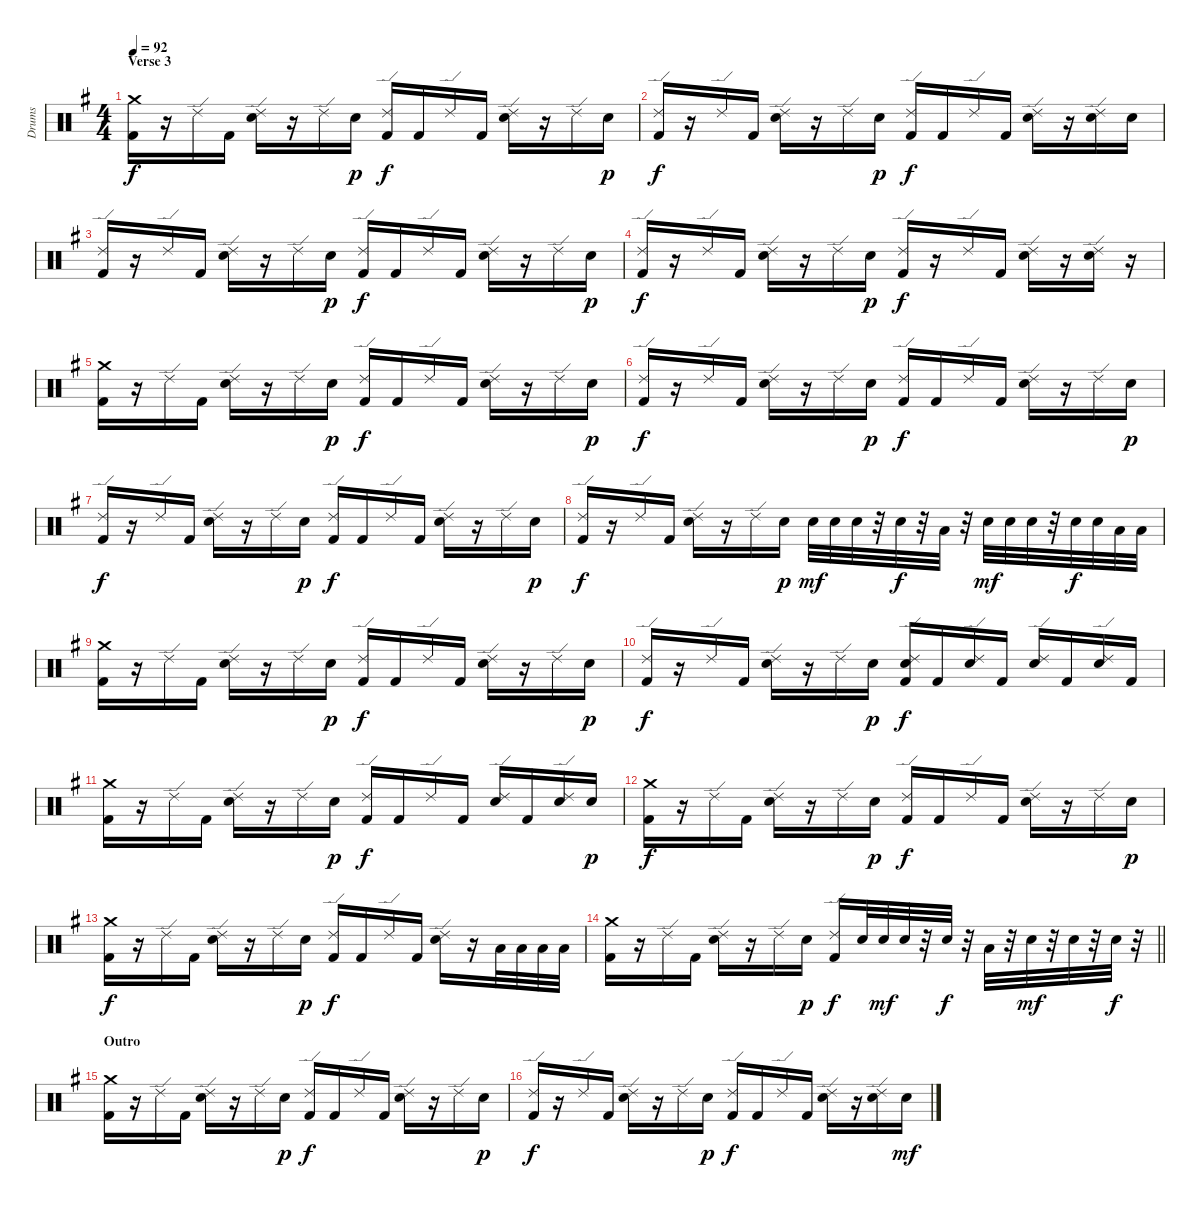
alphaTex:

\track ("Drums" "Drums") {instrument percussion}
\staff {score}
\articulation defaults
\ts (4 4)
\section ("" "Verse 3")
\tempo 92
\clef neutral
\ks g
("Crash medium (hit)" "Kick (hit) 2").16{dy f} r.16 "Ride (edge) 2".16 "Kick (hit) 2".16 ("Ride (edge) 2" "Snare (hit) 2").16 r.16 "Ride (edge) 2".16 "Snare (hit) 2".16{dy p} ("Ride (edge) 2" "Kick (hit) 2").16{dy f} "Kick (hit) 2".16 "Ride (edge) 2".16 "Kick (hit) 2".16 ("Ride (edge) 2" "Snare (hit) 2").16 r.16 "Ride (edge) 2".16 "Snare (hit) 2".16{dy p} |
("Ride (edge) 2" "Kick (hit) 2").16{dy f} r.16 "Ride (edge) 2".16 "Kick (hit) 2".16 ("Ride (edge) 2" "Snare (hit) 2").16 r.16 "Ride (edge) 2".16 "Snare (hit) 2".16{dy p} ("Ride (edge) 2" "Kick (hit) 2").16{dy f} "Kick (hit) 2".16 "Ride (edge) 2".16 "Kick (hit) 2".16 ("Ride (edge) 2" "Snare (hit) 2").16 r.16 ("Ride (edge) 2" "Snare (hit) 2").16 "Snare (hit) 2".16 |
("Ride (edge) 2" "Kick (hit) 2").16 r.16 "Ride (edge) 2".16 "Kick (hit) 2".16 ("Ride (edge) 2" "Snare (hit) 2").16 r.16 "Ride (edge) 2".16 "Snare (hit) 2".16{dy p} ("Ride (edge) 2" "Kick (hit) 2").16{dy f} "Kick (hit) 2".16 "Ride (edge) 2".16 "Kick (hit) 2".16 ("Ride (edge) 2" "Snare (hit) 2").16 r.16 "Ride (edge) 2".16 "Snare (hit) 2".16{dy p} |
("Ride (edge) 2" "Kick (hit) 2").16{dy f} r.16 "Ride (edge) 2".16 "Kick (hit) 2".16 ("Ride (edge) 2" "Snare (hit) 2").16 r.16 "Ride (edge) 2".16 "Snare (hit) 2".16{dy p} ("Ride (edge) 2" "Kick (hit) 2").16{dy f} r.16 "Ride (edge) 2".16 "Kick (hit) 2".16 ("Ride (edge) 2" "Snare (hit) 2").16 r.16 ("Ride (edge) 2" "Snare (hit) 2").16 r.16 |
("Crash medium (hit)" "Kick (hit) 2").16 r.16 "Ride (edge) 2".16 "Kick (hit) 2".16 ("Ride (edge) 2" "Snare (hit) 2").16 r.16 "Ride (edge) 2".16 "Snare (hit) 2".16{dy p} ("Ride (edge) 2" "Kick (hit) 2").16{dy f} "Kick (hit) 2".16 "Ride (edge) 2".16 "Kick (hit) 2".16 ("Ride (edge) 2" "Snare (hit) 2").16 r.16 "Ride (edge) 2".16 "Snare (hit) 2".16{dy p} |
("Ride (edge) 2" "Kick (hit) 2").16{dy f} r.16 "Ride (edge) 2".16 "Kick (hit) 2".16 ("Ride (edge) 2" "Snare (hit) 2").16 r.16 "Ride (edge) 2".16 "Snare (hit) 2".16{dy p} ("Ride (edge) 2" "Kick (hit) 2").16{dy f} "Kick (hit) 2".16 "Ride (edge) 2".16 "Kick (hit) 2".16 ("Ride (edge) 2" "Snare (hit) 2").16 r.16 "Ride (edge) 2".16 "Snare (hit) 2".16{dy p} |
("Ride (edge) 2" "Kick (hit) 2").16{dy f} r.16 "Ride (edge) 2".16 "Kick (hit) 2".16 ("Ride (edge) 2" "Snare (hit) 2").16 r.16 "Ride (edge) 2".16 "Snare (hit) 2".16{dy p} ("Ride (edge) 2" "Kick (hit) 2").16{dy f} "Kick (hit) 2".16 "Ride (edge) 2".16 "Kick (hit) 2".16 ("Ride (edge) 2" "Snare (hit) 2").16 r.16 "Ride (edge) 2".16 "Snare (hit) 2".16{dy p} |
("Ride (edge) 2" "Kick (hit) 2").16{dy f} r.16 "Ride (edge) 2".16 "Kick (hit) 2".16 ("Ride (edge) 2" "Snare (hit) 2").16 r.16 "Ride (edge) 2".16 "Snare (hit) 2".16{dy p} "Snare (hit) 2".32{dy mf} "Snare (hit) 2".32 "Snare (hit) 2".32 r.32 "Snare (hit) 2".32{dy f} r.32 "Low Tom (hit)".32 r.32 "Snare (hit) 2".32{dy mf} "Snare (hit) 2".32 "Snare (hit) 2".32 r.32 "Snare (hit) 2".32{dy f} "Snare (hit) 2".32 "Low Floor Tom (hit)".32 "Low Floor Tom (hit)".32 |
("Crash medium (hit)" "Kick (hit) 2").16 r.16 "Ride (edge) 2".16 "Kick (hit) 2".16 ("Ride (edge) 2" "Snare (hit) 2").16 r.16 "Ride (edge) 2".16 "Snare (hit) 2".16{dy p} ("Ride (edge) 2" "Kick (hit) 2").16{dy f} "Kick (hit) 2".16 "Ride (edge) 2".16 "Kick (hit) 2".16 ("Ride (edge) 2" "Snare (hit) 2").16 r.16 "Ride (edge) 2".16 "Snare (hit) 2".16{dy p} |
("Ride (edge) 2" "Kick (hit) 2").16{dy f} r.16 "Ride (edge) 2".16 "Kick (hit) 2".16 ("Ride (edge) 2" "Snare (hit) 2").16 r.16 "Ride (edge) 2".16 "Snare (hit) 2".16{dy p} ("Ride (edge) 2" "Snare (hit) 2" "Kick (hit) 2").16{dy f} "Kick (hit) 2".16 ("Ride (edge) 2" "Snare (hit) 2").16 "Kick (hit) 2".16 ("Ride (edge) 2" "Snare (hit) 2").16 "Kick (hit) 2".16 ("Ride (edge) 2" "Snare (hit) 2").16 "Kick (hit) 2".16 |
("Crash medium (hit)" "Kick (hit) 2").16 r.16 "Ride (edge) 2".16 "Kick (hit) 2".16 ("Ride (edge) 2" "Snare (hit) 2").16 r.16 "Ride (edge) 2".16 "Snare (hit) 2".16{dy p} ("Ride (edge) 2" "Kick (hit) 2").16{dy f} "Kick (hit) 2".16 "Ride (edge) 2".16 "Kick (hit) 2".16 ("Ride (edge) 2" "Snare (hit) 2").16 "Kick (hit) 2".16 ("Ride (edge) 2" "Snare (hit) 2").16 "Snare (hit) 2".16{dy p} |
("Crash medium (hit)" "Kick (hit) 2").16{dy f} r.16 "Ride (edge) 2".16 "Kick (hit) 2".16 ("Ride (edge) 2" "Snare (hit) 2").16 r.16 "Ride (edge) 2".16 "Snare (hit) 2".16{dy p} ("Ride (edge) 2" "Kick (hit) 2").16{dy f} "Kick (hit) 2".16 "Ride (edge) 2".16 "Kick (hit) 2".16 ("Ride (edge) 2" "Snare (hit) 2").16 r.16 "Ride (edge) 2".16 "Snare (hit) 2".16{dy p} |
("Crash medium (hit)" "Kick (hit) 2").16{dy f} r.16 "Ride (edge) 2".16 "Kick (hit) 2".16 ("Ride (edge) 2" "Snare (hit) 2").16 r.16 "Ride (edge) 2".16 "Snare (hit) 2".16{dy p} ("Ride (edge) 2" "Kick (hit) 2").16{dy f} "Kick (hit) 2".16 "Ride (edge) 2".16 "Kick (hit) 2".16 ("Ride (edge) 2" "Snare (hit) 2").16 r.16 "Low Floor Tom (hit)".32 "Low Floor Tom (hit)".32 "Low Floor Tom (hit)".32 "Low Floor Tom (hit)".32 |
\barLineRight lightlight
("Crash medium (hit)" "Kick (hit) 2").16 r.16 "Ride (edge) 2".16 "Kick (hit) 2".16 ("Ride (edge) 2" "Snare (hit) 2").16 r.16 "Ride (edge) 2".16 "Snare (hit) 2".16{dy p} ("Ride (edge) 2" "Kick (hit) 2").16{dy f} "Snare (hit) 2".32 "Snare (hit) 2".32{dy mf} "Snare (hit) 2".32 r.32 "Snare (hit) 2".32{dy f} r.32 "Low Tom (hit)".32 r.32 "Snare (hit) 2".32{dy mf} r.32 "Snare (hit) 2".32 r.32 "Snare (hit) 2".32{dy f} r.32 |
\section ("" "Outro")
("Crash medium (hit)" "Kick (hit) 2").16 r.16 "Ride (edge) 2".16 "Kick (hit) 2".16 ("Ride (edge) 2" "Snare (hit) 2").16 r.16 "Ride (edge) 2".16 "Snare (hit) 2".16{dy p} ("Ride (edge) 2" "Kick (hit) 2").16{dy f} "Kick (hit) 2".16 "Ride (edge) 2".16 "Kick (hit) 2".16 ("Ride (edge) 2" "Snare (hit) 2").16 r.16 "Ride (edge) 2".16 "Snare (hit) 2".16{dy p} |
("Ride (edge) 2" "Kick (hit) 2").16{dy f} r.16 "Ride (edge) 2".16 "Kick (hit) 2".16 ("Ride (edge) 2" "Snare (hit) 2").16 r.16 "Ride (edge) 2".16 "Snare (hit) 2".16{dy p} ("Ride (edge) 2" "Kick (hit) 2").16{dy f} "Kick (hit) 2".16 "Ride (edge) 2".16 "Kick (hit) 2".16 ("Ride (edge) 2" "Snare (hit) 2").16 r.16 ("Ride (edge) 2" "Snare (hit) 2").16 "Snare (hit) 2".16{dy mf}
